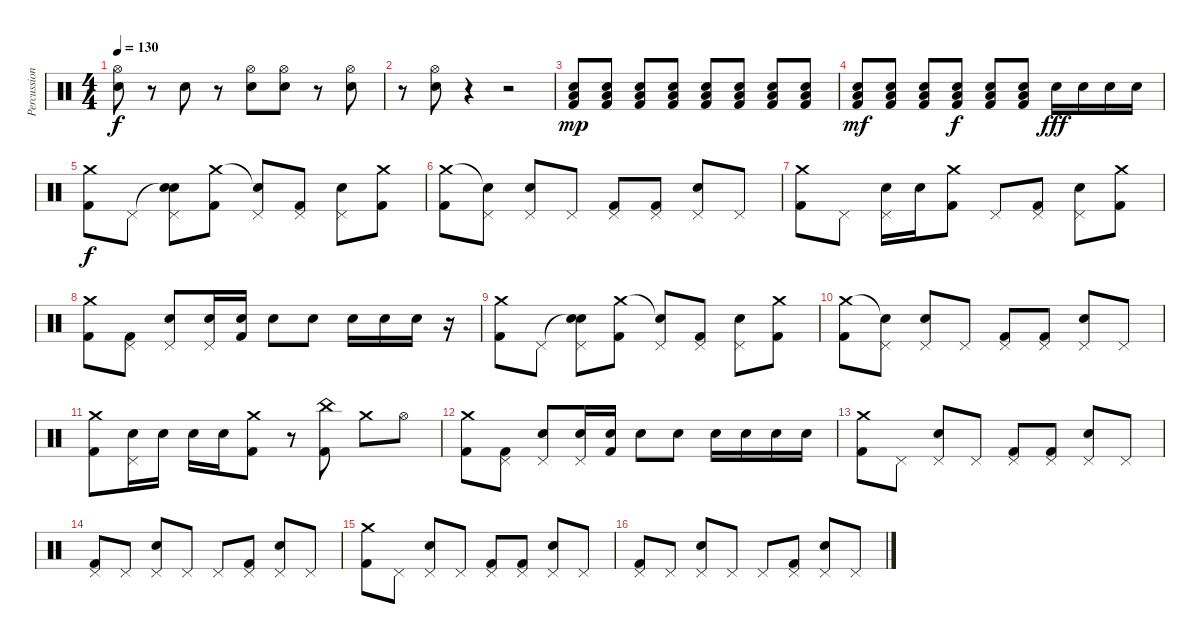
\track ("Percussion" "Percussion") {instrument percussion}
\staff {score}
\articulation defaults
\ts (4 4)
\tempo 130
\clef neutral
\ks c
("Hi-Hat (open)" "Snare (hit) 2").8{dy f} r.8 "Snare (hit) 2".8 r.8 ("Hi-Hat (open)" "Snare (hit) 2").8 ("Hi-Hat (open)" "Snare (hit) 2").8 r.8 ("Hi-Hat (open)" "Snare (hit) 2").8 |
r.8 ("Hi-Hat (open)" "Snare (hit) 2").8 r.4 r.2 |
("Low Tom (hit)" "Snare (hit) 2" "Kick (hit) 2").8{dy mp} ("Low Tom (hit)" "Snare (hit) 2" "Kick (hit) 2").8 ("Low Tom (hit)" "Snare (hit) 2" "Kick (hit) 2").8 ("Low Tom (hit)" "Snare (hit) 2" "Kick (hit) 2").8 ("Low Tom (hit)" "Snare (hit) 2" "Kick (hit) 2").8 ("Low Tom (hit)" "Snare (hit) 2" "Kick (hit) 2").8 ("Low Tom (hit)" "Snare (hit) 2" "Kick (hit) 2").8 ("Low Tom (hit)" "Snare (hit) 2" "Kick (hit) 2").8 |
("Low Tom (hit)" "Snare (hit) 2" "Kick (hit) 2").8{dy mf} ("Low Tom (hit)" "Snare (hit) 2" "Kick (hit) 2").8 ("Low Tom (hit)" "Snare (hit) 2" "Kick (hit) 2").8 ("Low Tom (hit)" "Snare (hit) 2" "Kick (hit) 2").8{dy f} ("Low Tom (hit)" "Snare (hit) 2" "Kick (hit) 2").8 ("Low Tom (hit)" "Snare (hit) 2" "Kick (hit) 2").8 "Snare (hit) 2".16{dy fff} "Snare (hit) 2".16 "Snare (hit) 2".16 "Snare (hit) 2".16 |
("Crash medium (hit)" "Kick (hit) 2").8{dy f} "Pedal Hi-Hat (hit)".8 ("Snare (hit)"{t} "Pedal Hi-Hat (hit)" "Snare (hit) 2").8 ("Crash medium (hit)" "Kick (hit) 2").8 ("Snare (hit)"{t} "Pedal Hi-Hat (hit)").8 ("Pedal Hi-Hat (hit)" "Kick (hit) 2").8 ("Pedal Hi-Hat (hit)" "Snare (hit) 2").8 ("Crash medium (hit)" "Kick (hit) 2").8 |
("Crash medium (hit)" "Kick (hit) 2").8 ("Snare (hit)"{t} "Pedal Hi-Hat (hit)").8 ("Pedal Hi-Hat (hit)" "Snare (hit) 2").8 "Pedal Hi-Hat (hit)".8 ("Pedal Hi-Hat (hit)" "Kick (hit) 2").8 ("Pedal Hi-Hat (hit)" "Kick (hit) 2").8 ("Pedal Hi-Hat (hit)" "Snare (hit) 2").8 "Pedal Hi-Hat (hit)".8 |
("Crash medium (hit)" "Kick (hit) 2").8 "Pedal Hi-Hat (hit)".8 ("Pedal Hi-Hat (hit)" "Snare (hit) 2").16 "Snare (hit) 2".16 ("Crash medium (hit)" "Kick (hit) 2").8 "Pedal Hi-Hat (hit)".8 ("Pedal Hi-Hat (hit)" "Kick (hit) 2").8 ("Pedal Hi-Hat (hit)" "Snare (hit) 2").8 ("Crash medium (hit)" "Kick (hit) 2").8 |
("Crash medium (hit)" "Kick (hit) 2").8 ("Pedal Hi-Hat (hit)" "Kick (hit) 2").8 ("Pedal Hi-Hat (hit)" "Snare (hit) 2").8 ("Pedal Hi-Hat (hit)" "Snare (hit) 2").16 ("Snare (hit) 2" "Kick (hit) 2").16 "Snare (hit) 2".8 "Snare (hit) 2".8 "Snare (hit) 2".16 "Snare (hit) 2".16 "Snare (hit) 2".16 r.16 |
("Crash medium (hit)" "Kick (hit) 2").8 "Pedal Hi-Hat (hit)".8 ("Snare (hit)"{t} "Pedal Hi-Hat (hit)" "Snare (hit) 2").8 ("Crash medium (hit)" "Kick (hit) 2").8 ("Snare (hit)"{t} "Pedal Hi-Hat (hit)").8 ("Pedal Hi-Hat (hit)" "Kick (hit) 2").8 ("Pedal Hi-Hat (hit)" "Snare (hit) 2").8 ("Crash medium (hit)" "Kick (hit) 2").8 |
("Crash medium (hit)" "Kick (hit) 2").8 ("Snare (hit)"{t} "Pedal Hi-Hat (hit)").8 ("Pedal Hi-Hat (hit)" "Snare (hit) 2").8 "Pedal Hi-Hat (hit)".8 ("Pedal Hi-Hat (hit)" "Kick (hit) 2").8 ("Pedal Hi-Hat (hit)" "Kick (hit) 2").8 ("Pedal Hi-Hat (hit)" "Snare (hit) 2").8 "Pedal Hi-Hat (hit)".8 |
("Crash medium (hit)" "Kick (hit) 2").8 ("Pedal Hi-Hat (hit)" "Snare (hit) 2").16 "Snare (hit) 2".16 "Snare (hit) 2".16 "Snare (hit) 2".16 ("Crash medium (hit)" "Kick (hit) 2").8 r.8 ("China (hit)" "Kick (hit) 2").8 "Crash medium (hit)".8 "Hi-Hat (open)".8 |
("Crash medium (hit)" "Kick (hit) 2").8 ("Pedal Hi-Hat (hit)" "Kick (hit) 2").8 ("Pedal Hi-Hat (hit)" "Snare (hit) 2").8 ("Pedal Hi-Hat (hit)" "Snare (hit) 2").16 ("Snare (hit) 2" "Kick (hit) 2").16 "Snare (hit) 2".8 "Snare (hit) 2".8 "Snare (hit) 2".16 "Snare (hit) 2".16 "Snare (hit) 2".16 "Snare (hit) 2".16 |
("Crash medium (hit)" "Kick (hit) 2").8 "Pedal Hi-Hat (hit)".8 ("Pedal Hi-Hat (hit)" "Snare (hit) 2").8 "Pedal Hi-Hat (hit)".8 ("Pedal Hi-Hat (hit)" "Kick (hit) 2").8 ("Pedal Hi-Hat (hit)" "Kick (hit) 2").8 ("Pedal Hi-Hat (hit)" "Snare (hit) 2").8 "Pedal Hi-Hat (hit)".8 |
("Pedal Hi-Hat (hit)" "Kick (hit) 2").8 "Pedal Hi-Hat (hit)".8 ("Pedal Hi-Hat (hit)" "Snare (hit) 2").8 "Pedal Hi-Hat (hit)".8 "Pedal Hi-Hat (hit)".8 ("Pedal Hi-Hat (hit)" "Kick (hit) 2").8 ("Pedal Hi-Hat (hit)" "Snare (hit) 2").8 "Pedal Hi-Hat (hit)".8 |
("Crash medium (hit)" "Kick (hit) 2").8 "Pedal Hi-Hat (hit)".8 ("Pedal Hi-Hat (hit)" "Snare (hit) 2").8 "Pedal Hi-Hat (hit)".8 ("Pedal Hi-Hat (hit)" "Kick (hit) 2").8 ("Pedal Hi-Hat (hit)" "Kick (hit) 2").8 ("Pedal Hi-Hat (hit)" "Snare (hit) 2").8 "Pedal Hi-Hat (hit)".8 |
("Pedal Hi-Hat (hit)" "Kick (hit) 2").8 "Pedal Hi-Hat (hit)".8 ("Pedal Hi-Hat (hit)" "Snare (hit) 2").8 "Pedal Hi-Hat (hit)".8 "Pedal Hi-Hat (hit)".8 ("Pedal Hi-Hat (hit)" "Kick (hit) 2").8 ("Pedal Hi-Hat (hit)" "Snare (hit) 2").8 "Pedal Hi-Hat (hit)".8
